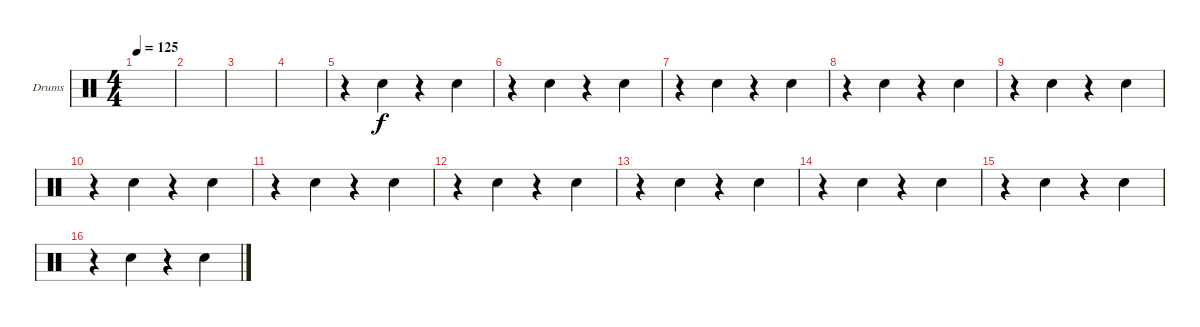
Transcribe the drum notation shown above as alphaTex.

\defaultSystemsLayout 4
\bracketExtendMode groupsimilarinstruments
\firstSystemTrackNameOrientation horizontal
\otherSystemsTrackNameOrientation horizontal
\track ("Drumkit" "Drums") {instrument percussion}
\staff {score}
\articulation defaults
\ts (4 4)
\tempo 125
\clef neutral
\scale
0.472222
\ks c
|
\scale
0.263889 |
\scale
0.263889 |
\scale
0.333333 |
\scale
0.333333 r.4 "Snare (hit) 2".4 r.4 "Snare (hit) 2".4 |
\scale
0.333333 r.4 "Snare (hit) 2".4 r.4 "Snare (hit) 2".4 |
\scale
0.333333 r.4 "Snare (hit) 2".4 r.4 "Snare (hit) 2".4 |
\scale
0.333333 r.4 "Snare (hit) 2".4 r.4 "Snare (hit) 2".4 |
\scale
0.333333 r.4 "Snare (hit) 2".4 r.4 "Snare (hit) 2".4 |
\scale
0.333333 r.4 "Snare (hit) 2".4 r.4 "Snare (hit) 2".4 |
\scale
0.333333 r.4 "Snare (hit) 2".4 r.4 "Snare (hit) 2".4 |
\scale
0.333333 r.4 "Snare (hit) 2".4 r.4 "Snare (hit) 2".4 |
\scale
0.333333 r.4 "Snare (hit) 2".4 r.4 "Snare (hit) 2".4 |
\scale
0.333333 r.4 "Snare (hit) 2".4 r.4 "Snare (hit) 2".4 |
\scale
0.333333 r.4 "Snare (hit) 2".4 r.4 "Snare (hit) 2".4 |
\scale
0.333333 r.4 "Snare (hit) 2".4 r.4 "Snare (hit) 2".4
